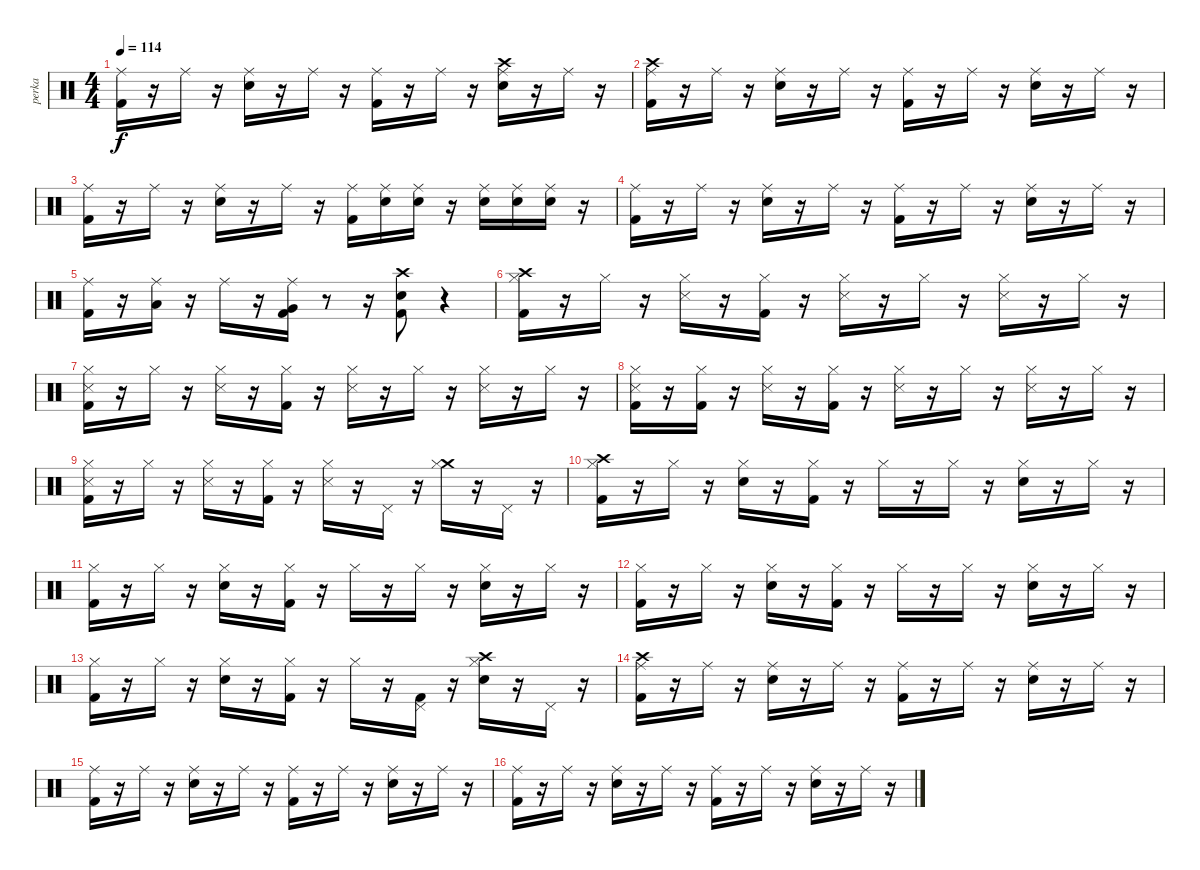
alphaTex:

\track ("perka" "perka") {instrument percussion}
\staff {score}
\articulation defaults
\ts (4 4)
\tempo 114
\clef neutral
\ks c
("Kick (hit) 2" "Ride (middle)").16{dy f} r.16 "Ride (middle)".16 r.16 ("Snare (hit) 2" "Ride (middle)").16 r.16 "Ride (middle)".16 r.16 ("Kick (hit) 2" "Ride (middle)").16 r.16 "Ride (middle)".16 r.16 ("Snare (hit) 2" "Ride (middle)" "Crash high (hit)").16 r.16 "Ride (middle)".16 r.16 |
("Kick (hit) 2" "Ride (middle)" "Crash high (hit)").16 r.16 "Ride (middle)".16 r.16 ("Snare (hit) 2" "Ride (middle)").16 r.16 "Ride (middle)".16 r.16 ("Kick (hit) 2" "Ride (middle)").16 r.16 "Ride (middle)".16 r.16 ("Snare (hit) 2" "Ride (middle)").16 r.16 "Ride (middle)".16 r.16 |
("Kick (hit) 2" "Ride (middle)").16 r.16 "Ride (middle)".16 r.16 ("Snare (hit) 2" "Ride (middle)").16 r.16 "Ride (middle)".16 r.16 ("Kick (hit) 2" "Ride (middle)").16 ("Snare (hit)" "Ride (middle)").16 ("Snare (hit)" "Ride (middle)").16 r.16 ("Snare (hit) 2" "Ride (middle)").16 ("Snare (hit)" "Ride (middle)").16 ("Snare (hit)" "Ride (middle)").16 r.16 |
("Kick (hit) 2" "Ride (middle)").16 r.16 "Ride (middle)".16 r.16 ("Snare (hit) 2" "Ride (middle)").16 r.16 "Ride (middle)".16 r.16 ("Kick (hit) 2" "Ride (middle)").16 r.16 "Ride (middle)".16 r.16 ("Snare (hit) 2" "Ride (middle)").16 r.16 "Ride (middle)".16 r.16 |
("Kick (hit) 2" "Ride (middle)").16 r.16 ("Ride (middle)" "Low Tom (hit)").16 r.16 "Ride (middle)".16 r.16 ("Kick (hit) 2" "Ride (middle)" "Very Low Tom (hit)").16 r.8 r.16 ("Kick (hit) 2" "Snare (hit) 2" "Crash high (hit)").8 r.4 |
("Kick (hit) 2" "Hi-Hat (closed)" "Crash high (hit)").16 r.16 "Hi-Hat (closed)".16 r.16 ("Snare (side stick) 3" "Hi-Hat (closed)").16 r.16 ("Kick (hit) 2" "Hi-Hat (closed)").16 r.16 ("Snare (side stick) 3" "Hi-Hat (closed)").16 r.16 "Hi-Hat (closed)".16 r.16 ("Snare (side stick) 3" "Hi-Hat (closed)").16 r.16 "Hi-Hat (closed)".16 r.16 |
("Kick (hit) 2" "Snare (side stick) 3" "Hi-Hat (closed)").16 r.16 "Hi-Hat (closed)".16 r.16 ("Snare (side stick) 3" "Hi-Hat (closed)").16 r.16 ("Kick (hit) 2" "Hi-Hat (closed)").16 r.16 ("Snare (side stick) 3" "Hi-Hat (closed)").16 r.16 "Hi-Hat (closed)".16 r.16 ("Snare (side stick) 3" "Hi-Hat (closed)").16 r.16 "Hi-Hat (closed)".16 r.16 |
("Kick (hit) 2" "Snare (side stick) 3" "Hi-Hat (closed)").16 r.16 ("Kick (hit) 2" "Hi-Hat (closed)").16 r.16 ("Snare (side stick) 3" "Hi-Hat (closed)").16 r.16 ("Kick (hit) 2" "Hi-Hat (closed)").16 r.16 ("Snare (side stick) 3" "Hi-Hat (closed)").16 r.16 "Hi-Hat (closed)".16 r.16 ("Snare (side stick) 3" "Hi-Hat (closed)").16 r.16 "Hi-Hat (closed)".16 r.16 |
("Kick (hit) 2" "Snare (side stick) 3" "Hi-Hat (closed)").16 r.16 "Hi-Hat (closed)".16 r.16 ("Snare (side stick) 3" "Hi-Hat (closed)").16 r.16 ("Kick (hit) 2" "Hi-Hat (closed)").16 r.16 ("Snare (side stick) 3" "Hi-Hat (closed)").16 r.16 "Pedal Hi-Hat (hit)".16 r.16 ("Crash medium (hit)" "Hi-Hat (closed)").16 r.16 "Pedal Hi-Hat (hit)".16 r.16 |
("Kick (hit) 2" "Hi-Hat (closed)" "Crash high (hit)").16 r.16 "Hi-Hat (closed)".16 r.16 ("Snare (hit) 2" "Hi-Hat (closed)").16 r.16 ("Kick (hit) 2" "Hi-Hat (closed)").16 r.16 "Hi-Hat (closed)".16 r.16 "Hi-Hat (closed)".16 r.16 ("Snare (hit) 2" "Hi-Hat (closed)").16 r.16 "Hi-Hat (closed)".16 r.16 |
("Kick (hit) 2" "Hi-Hat (closed)").16 r.16 "Hi-Hat (closed)".16 r.16 ("Snare (hit) 2" "Hi-Hat (closed)").16 r.16 ("Kick (hit) 2" "Hi-Hat (closed)").16 r.16 "Hi-Hat (closed)".16 r.16 "Hi-Hat (closed)".16 r.16 ("Snare (hit) 2" "Hi-Hat (closed)").16 r.16 "Hi-Hat (closed)".16 r.16 |
("Kick (hit) 2" "Hi-Hat (closed)").16 r.16 "Hi-Hat (closed)".16 r.16 ("Snare (hit) 2" "Hi-Hat (closed)").16 r.16 ("Kick (hit) 2" "Hi-Hat (closed)").16 r.16 "Hi-Hat (closed)".16 r.16 "Hi-Hat (closed)".16 r.16 ("Snare (hit) 2" "Hi-Hat (closed)").16 r.16 "Hi-Hat (closed)".16 r.16 |
("Kick (hit) 2" "Hi-Hat (closed)").16 r.16 "Hi-Hat (closed)".16 r.16 ("Snare (hit) 2" "Hi-Hat (closed)").16 r.16 ("Kick (hit) 2" "Hi-Hat (closed)").16 r.16 "Hi-Hat (closed)".16 r.16 ("Kick (hit) 2" "Pedal Hi-Hat (hit)").16 r.16 ("Crash high (hit)" "Snare (hit) 2" "Hi-Hat (closed)").16 r.16 "Pedal Hi-Hat (hit)".16 r.16 |
("Kick (hit) 2" "Ride (middle)" "Crash high (hit)").16 r.16 "Ride (middle)".16 r.16 ("Snare (hit) 2" "Ride (middle)").16 r.16 "Ride (middle)".16 r.16 ("Kick (hit) 2" "Ride (middle)").16 r.16 "Ride (middle)".16 r.16 ("Snare (hit) 2" "Ride (middle)").16 r.16 "Ride (middle)".16 r.16 |
("Kick (hit) 2" "Ride (middle)").16 r.16 "Ride (middle)".16 r.16 ("Snare (hit) 2" "Ride (middle)").16 r.16 "Ride (middle)".16 r.16 ("Kick (hit) 2" "Ride (middle)").16 r.16 "Ride (middle)".16 r.16 ("Snare (hit) 2" "Ride (middle)").16 r.16 "Ride (middle)".16 r.16 |
("Kick (hit) 2" "Ride (middle)").16 r.16 "Ride (middle)".16 r.16 ("Snare (hit) 2" "Ride (middle)").16 r.16 "Ride (middle)".16 r.16 ("Kick (hit) 2" "Ride (middle)").16 r.16 "Ride (middle)".16 r.16 ("Snare (hit) 2" "Ride (middle)").16 r.16 "Ride (middle)".16 r.16
